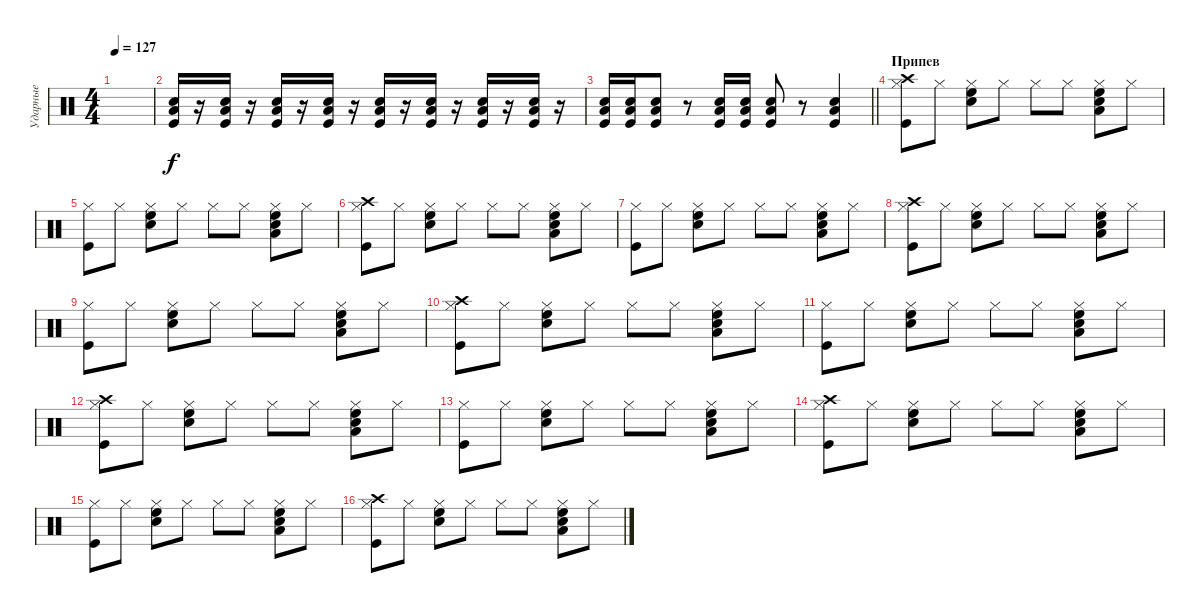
\track ("Ударные" "Ударные") {instrument percussion}
\staff {score}
\articulation defaults
\ts (4 4)
\tempo 127
\clef neutral
\ks c
|
("Kick (hit)" "Snare (hit) 2" "Low Floor Tom (hit)").16 r.16 ("Kick (hit)" "Snare (hit) 2" "Low Floor Tom (hit)").16 r.16 ("Kick (hit)" "Snare (hit) 2" "Low Floor Tom (hit)").16 r.16 ("Kick (hit)" "Snare (hit) 2" "Low Floor Tom (hit)").16 r.16 ("Kick (hit)" "Snare (hit) 2" "Low Floor Tom (hit)").16 r.16 ("Kick (hit)" "Snare (hit) 2" "Low Floor Tom (hit)").16 r.16 ("Kick (hit)" "Snare (hit) 2" "Low Floor Tom (hit)").16 r.16 ("Kick (hit)" "Snare (hit) 2" "Low Floor Tom (hit)").16 r.16 |
\barLineRight lightlight
("Kick (hit)" "Snare (hit) 2" "Low Floor Tom (hit)").16 ("Kick (hit)" "Snare (hit) 2" "Low Floor Tom (hit)").16 ("Kick (hit)" "Snare (hit) 2" "Low Floor Tom (hit)").8 r.8 ("Kick (hit)" "Snare (hit) 2" "Low Floor Tom (hit)").16 ("Kick (hit)" "Snare (hit) 2" "Low Floor Tom (hit)").16 ("Kick (hit)" "Snare (hit) 2" "Low Floor Tom (hit)").8 r.8 ("Kick (hit)" "Snare (hit) 2" "Low Floor Tom (hit)").4 |
\section ("" "Припев")
("Hi-Hat (closed)" "Crash high (hit)" "Kick (hit)").8 "Hi-Hat (closed)".8 ("Hi-Hat (closed)" "High Floor Tom (hit)" "Snare (hit) 2").8 "Hi-Hat (closed)".8 "Hi-Hat (closed)".8 "Hi-Hat (closed)".8 ("Hi-Hat (closed)" "High Floor Tom (hit)" "Snare (hit) 2" "Low Floor Tom (hit)").8 "Hi-Hat (closed)".8 |
("Hi-Hat (closed)" "Kick (hit)").8 "Hi-Hat (closed)".8 ("Hi-Hat (closed)" "High Floor Tom (hit)" "Snare (hit) 2").8 "Hi-Hat (closed)".8 "Hi-Hat (closed)".8 "Hi-Hat (closed)".8 ("Hi-Hat (closed)" "High Floor Tom (hit)" "Snare (hit) 2" "Low Floor Tom (hit)").8 "Hi-Hat (closed)".8 |
("Hi-Hat (closed)" "Crash high (hit)" "Kick (hit)").8 "Hi-Hat (closed)".8 ("Hi-Hat (closed)" "High Floor Tom (hit)" "Snare (hit) 2").8 "Hi-Hat (closed)".8 "Hi-Hat (closed)".8 "Hi-Hat (closed)".8 ("Hi-Hat (closed)" "High Floor Tom (hit)" "Snare (hit) 2" "Low Floor Tom (hit)").8 "Hi-Hat (closed)".8 |
("Hi-Hat (closed)" "Kick (hit)").8 "Hi-Hat (closed)".8 ("Hi-Hat (closed)" "High Floor Tom (hit)" "Snare (hit) 2").8 "Hi-Hat (closed)".8 "Hi-Hat (closed)".8 "Hi-Hat (closed)".8 ("Hi-Hat (closed)" "High Floor Tom (hit)" "Snare (hit) 2" "Low Floor Tom (hit)").8 "Hi-Hat (closed)".8 |
("Hi-Hat (closed)" "Crash high (hit)" "Kick (hit)").8 "Hi-Hat (closed)".8 ("Hi-Hat (closed)" "High Floor Tom (hit)" "Snare (hit) 2").8 "Hi-Hat (closed)".8 "Hi-Hat (closed)".8 "Hi-Hat (closed)".8 ("Hi-Hat (closed)" "High Floor Tom (hit)" "Snare (hit) 2" "Low Floor Tom (hit)").8 "Hi-Hat (closed)".8 |
("Hi-Hat (closed)" "Kick (hit)").8 "Hi-Hat (closed)".8 ("Hi-Hat (closed)" "High Floor Tom (hit)" "Snare (hit) 2").8 "Hi-Hat (closed)".8 "Hi-Hat (closed)".8 "Hi-Hat (closed)".8 ("Hi-Hat (closed)" "High Floor Tom (hit)" "Snare (hit) 2" "Low Floor Tom (hit)").8 "Hi-Hat (closed)".8 |
("Hi-Hat (closed)" "Crash high (hit)" "Kick (hit)").8 "Hi-Hat (closed)".8 ("Hi-Hat (closed)" "High Floor Tom (hit)" "Snare (hit) 2").8 "Hi-Hat (closed)".8 "Hi-Hat (closed)".8 "Hi-Hat (closed)".8 ("Hi-Hat (closed)" "High Floor Tom (hit)" "Snare (hit) 2" "Low Floor Tom (hit)").8 "Hi-Hat (closed)".8 |
("Hi-Hat (closed)" "Kick (hit)").8 "Hi-Hat (closed)".8 ("Hi-Hat (closed)" "High Floor Tom (hit)" "Snare (hit) 2").8 "Hi-Hat (closed)".8 "Hi-Hat (closed)".8 "Hi-Hat (closed)".8 ("Hi-Hat (closed)" "High Floor Tom (hit)" "Snare (hit) 2" "Low Floor Tom (hit)").8 "Hi-Hat (closed)".8 |
("Hi-Hat (closed)" "Crash high (hit)" "Kick (hit)").8 "Hi-Hat (closed)".8 ("Hi-Hat (closed)" "High Floor Tom (hit)" "Snare (hit) 2").8 "Hi-Hat (closed)".8 "Hi-Hat (closed)".8 "Hi-Hat (closed)".8 ("Hi-Hat (closed)" "High Floor Tom (hit)" "Snare (hit) 2" "Low Floor Tom (hit)").8 "Hi-Hat (closed)".8 |
("Hi-Hat (closed)" "Kick (hit)").8 "Hi-Hat (closed)".8 ("Hi-Hat (closed)" "High Floor Tom (hit)" "Snare (hit) 2").8 "Hi-Hat (closed)".8 "Hi-Hat (closed)".8 "Hi-Hat (closed)".8 ("Hi-Hat (closed)" "High Floor Tom (hit)" "Snare (hit) 2" "Low Floor Tom (hit)").8 "Hi-Hat (closed)".8 |
("Hi-Hat (closed)" "Crash high (hit)" "Kick (hit)").8 "Hi-Hat (closed)".8 ("Hi-Hat (closed)" "High Floor Tom (hit)" "Snare (hit) 2").8 "Hi-Hat (closed)".8 "Hi-Hat (closed)".8 "Hi-Hat (closed)".8 ("Hi-Hat (closed)" "High Floor Tom (hit)" "Snare (hit) 2" "Low Floor Tom (hit)").8 "Hi-Hat (closed)".8 |
("Hi-Hat (closed)" "Kick (hit)").8 "Hi-Hat (closed)".8 ("Hi-Hat (closed)" "High Floor Tom (hit)" "Snare (hit) 2").8 "Hi-Hat (closed)".8 "Hi-Hat (closed)".8 "Hi-Hat (closed)".8 ("Hi-Hat (closed)" "High Floor Tom (hit)" "Snare (hit) 2" "Low Floor Tom (hit)").8 "Hi-Hat (closed)".8 |
("Hi-Hat (closed)" "Crash high (hit)" "Kick (hit)").8 "Hi-Hat (closed)".8 ("Hi-Hat (closed)" "High Floor Tom (hit)" "Snare (hit) 2").8 "Hi-Hat (closed)".8 "Hi-Hat (closed)".8 "Hi-Hat (closed)".8 ("Hi-Hat (closed)" "High Floor Tom (hit)" "Snare (hit) 2" "Low Floor Tom (hit)").8 "Hi-Hat (closed)".8
